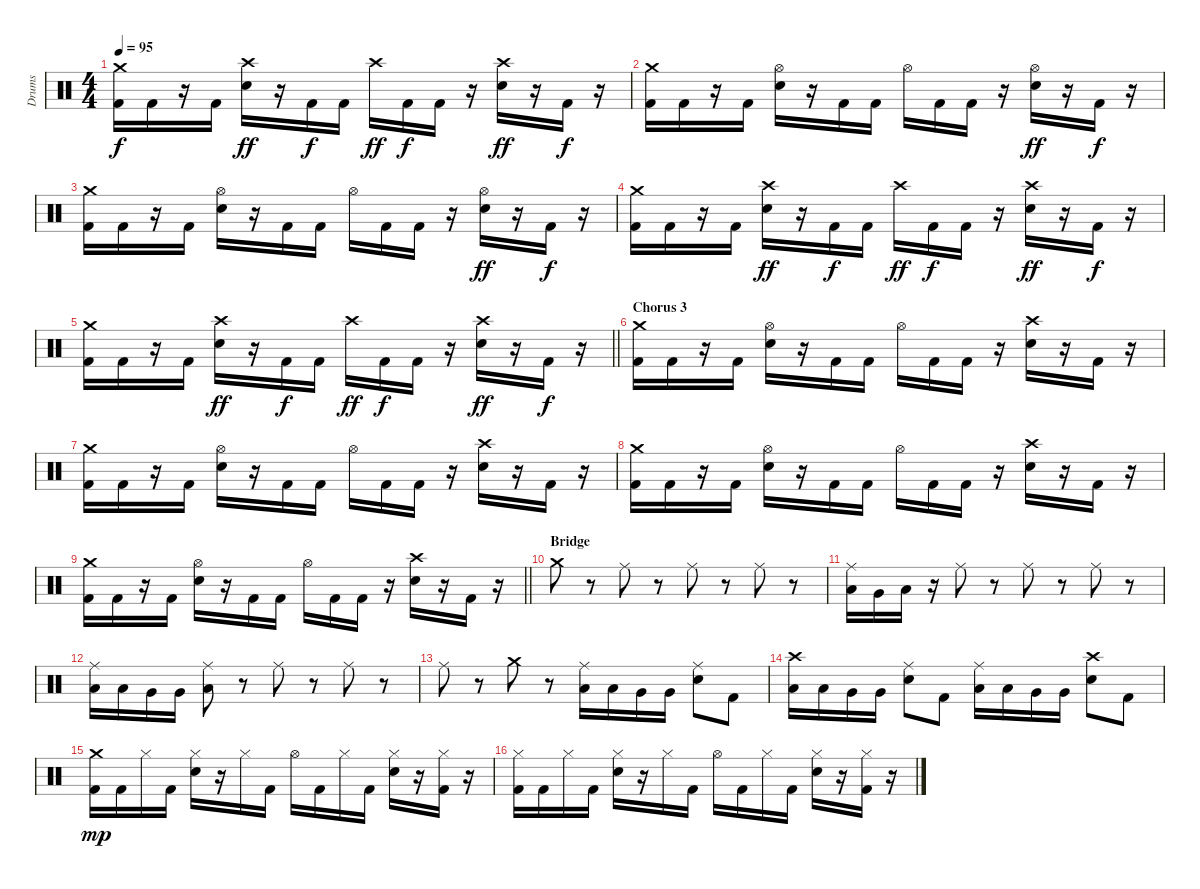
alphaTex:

\track ("Drums" "Drums") {instrument percussion}
\staff {score}
\articulation defaults
\ts (4 4)
\tempo 95
\clef neutral
\ks c
("Crash medium (hit)" "Kick (hit) 2").16{dy f} "Kick (hit) 2".16 r.16 "Kick (hit) 2".16 ("Crash high (hit)" "Electric Snare (hit)").16{dy ff} r.16 "Kick (hit) 2".16{dy f} "Kick (hit) 2".16 "Crash high (hit)".16{dy ff} "Kick (hit) 2".16{dy f} "Kick (hit) 2".16 r.16 ("Crash high (hit)" "Electric Snare (hit)").16{dy ff} r.16 "Kick (hit) 2".16{dy f} r.16 |
("Crash medium (hit)" "Kick (hit) 2").16 "Kick (hit) 2".16 r.16 "Kick (hit) 2".16 ("Hi-Hat (open)" "Electric Snare (hit)").16 r.16 "Kick (hit) 2".16 "Kick (hit) 2".16 "Hi-Hat (open)".16 "Kick (hit) 2".16 "Kick (hit) 2".16 r.16 ("Hi-Hat (open)" "Electric Snare (hit)").16{dy ff} r.16 "Kick (hit) 2".16{dy f} r.16 |
("Crash medium (hit)" "Kick (hit) 2").16 "Kick (hit) 2".16 r.16 "Kick (hit) 2".16 ("Hi-Hat (open)" "Electric Snare (hit)").16 r.16 "Kick (hit) 2".16 "Kick (hit) 2".16 "Hi-Hat (open)".16 "Kick (hit) 2".16 "Kick (hit) 2".16 r.16 ("Hi-Hat (open)" "Electric Snare (hit)").16{dy ff} r.16 "Kick (hit) 2".16{dy f} r.16 |
("Crash medium (hit)" "Kick (hit) 2").16 "Kick (hit) 2".16 r.16 "Kick (hit) 2".16 ("Crash high (hit)" "Electric Snare (hit)").16{dy ff} r.16 "Kick (hit) 2".16{dy f} "Kick (hit) 2".16 "Crash high (hit)".16{dy ff} "Kick (hit) 2".16{dy f} "Kick (hit) 2".16 r.16 ("Crash high (hit)" "Electric Snare (hit)").16{dy ff} r.16 "Kick (hit) 2".16{dy f} r.16 |
\barLineRight lightlight
("Crash medium (hit)" "Kick (hit) 2").16 "Kick (hit) 2".16 r.16 "Kick (hit) 2".16 ("Crash high (hit)" "Electric Snare (hit)").16{dy ff} r.16 "Kick (hit) 2".16{dy f} "Kick (hit) 2".16 "Crash high (hit)".16{dy ff} "Kick (hit) 2".16{dy f} "Kick (hit) 2".16 r.16 ("Crash high (hit)" "Electric Snare (hit)").16{dy ff} r.16 "Kick (hit) 2".16{dy f} r.16 |
\section ("" "Chorus 3")
("Crash medium (hit)" "Kick (hit) 2").16 "Kick (hit) 2".16 r.16 "Kick (hit) 2".16 ("Hi-Hat (open)" "Electric Snare (hit)").16 r.16 "Kick (hit) 2".16 "Kick (hit) 2".16 "Hi-Hat (open)".16 "Kick (hit) 2".16 "Kick (hit) 2".16 r.16 ("Crash high (hit)" "Electric Snare (hit)").16 r.16 "Kick (hit) 2".16 r.16 |
("Crash medium (hit)" "Kick (hit) 2").16 "Kick (hit) 2".16 r.16 "Kick (hit) 2".16 ("Hi-Hat (open)" "Electric Snare (hit)").16 r.16 "Kick (hit) 2".16 "Kick (hit) 2".16 "Hi-Hat (open)".16 "Kick (hit) 2".16 "Kick (hit) 2".16 r.16 ("Crash high (hit)" "Electric Snare (hit)").16 r.16 "Kick (hit) 2".16 r.16 |
("Crash medium (hit)" "Kick (hit) 2").16 "Kick (hit) 2".16 r.16 "Kick (hit) 2".16 ("Hi-Hat (open)" "Electric Snare (hit)").16 r.16 "Kick (hit) 2".16 "Kick (hit) 2".16 "Hi-Hat (open)".16 "Kick (hit) 2".16 "Kick (hit) 2".16 r.16 ("Crash high (hit)" "Electric Snare (hit)").16 r.16 "Kick (hit) 2".16 r.16 |
\barLineRight lightlight
("Crash medium (hit)" "Kick (hit) 2").16 "Kick (hit) 2".16 r.16 "Kick (hit) 2".16 ("Hi-Hat (open)" "Electric Snare (hit)").16 r.16 "Kick (hit) 2".16 "Kick (hit) 2".16 "Hi-Hat (open)".16 "Kick (hit) 2".16 "Kick (hit) 2".16 r.16 ("Crash high (hit)" "Electric Snare (hit)").16 r.16 "Kick (hit) 2".16 r.16 |
\section ("" "Bridge")
"Crash medium (hit)".8 r.8 "Ride (middle)".8 r.8 "Ride (middle)".8 r.8 "Ride (middle)".8 r.8 |
("Ride (middle)" "Low Tom (hit)").16 "Very Low Tom (hit)".16 "Low Floor Tom (hit)".16 r.16 "Ride (middle)".8 r.8 "Ride (middle)".8 r.8 "Ride (middle)".8 r.8 |
("Ride (middle)" "Low Tom (hit)").16 "Low Tom (hit)".16 "Very Low Tom (hit)".16 "Very Low Tom (hit)".16 ("Ride (middle)" "Low Floor Tom (hit)").8 r.8 "Ride (middle)".8 r.8 "Ride (middle)".8 r.8 |
"Ride (middle)".8 r.8 "Crash medium (hit)".8 r.8 ("Ride (middle)" "Low Tom (hit)").16 "Low Tom (hit)".16 "Very Low Tom (hit)".16 "Very Low Tom (hit)".16 ("Ride (middle)" "Electric Snare (hit)").8 "Kick (hit) 2".8 |
("Crash high (hit)" "Low Tom (hit)").16 "Low Tom (hit)".16 "Very Low Tom (hit)".16 "Very Low Tom (hit)".16 ("Ride (middle)" "Electric Snare (hit)").8 "Kick (hit) 2".8 ("Ride (middle)" "Low Tom (hit)").16 "Low Tom (hit)".16 "Very Low Tom (hit)".16 "Very Low Tom (hit)".16 ("Crash high (hit)" "Electric Snare (hit)").8 "Kick (hit) 2".8 |
("Crash medium (hit)" "Kick (hit) 2").16{dy mp} "Kick (hit) 2".16 "Hi-Hat (closed)".16 "Kick (hit) 2".16 ("Hi-Hat (closed)" "Electric Snare (hit)").16 r.16 "Hi-Hat (closed)".16 "Kick (hit) 2".16 "Hi-Hat (open)".16 "Kick (hit) 2".16 "Hi-Hat (closed)".16 "Kick (hit) 2".16 ("Hi-Hat (closed)" "Electric Snare (hit)").16 r.16 ("Hi-Hat (closed)" "Kick (hit) 2").16 r.16 |
("Hi-Hat (closed)" "Kick (hit) 2").16 "Kick (hit) 2".16 "Hi-Hat (closed)".16 "Kick (hit) 2".16 ("Hi-Hat (closed)" "Electric Snare (hit)").16 r.16 "Hi-Hat (closed)".16 "Kick (hit) 2".16 "Hi-Hat (open)".16 "Kick (hit) 2".16 "Hi-Hat (closed)".16 "Kick (hit) 2".16 ("Hi-Hat (closed)" "Electric Snare (hit)").16 r.16 ("Hi-Hat (closed)" "Kick (hit) 2").16 r.16
